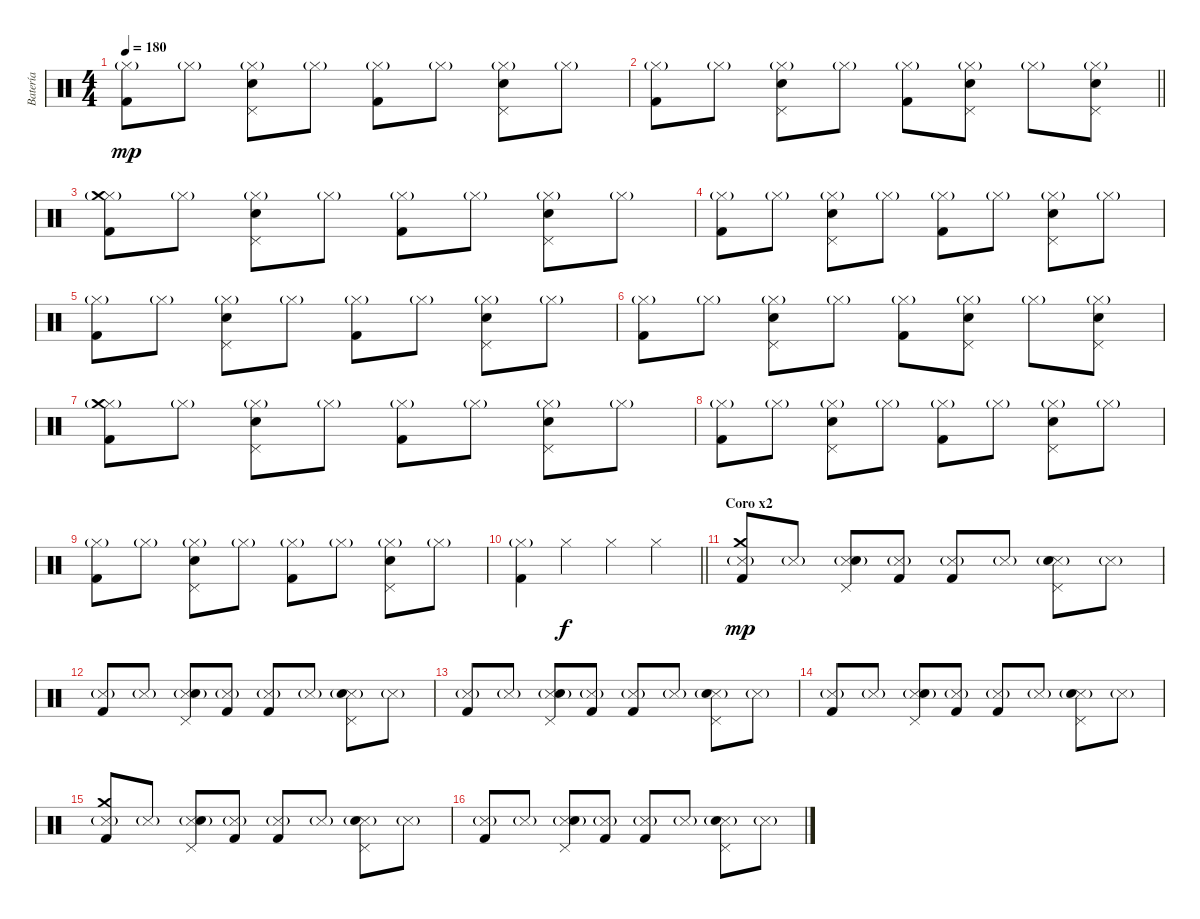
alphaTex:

\track ("Batería" "Batería") {instrument percussion}
\staff {score}
\articulation defaults
\ts (4 4)
\tempo 180
\clef neutral
\ks c
("Hi-Hat (closed)"{g} "Kick (hit) 2").8{dy mp} "Hi-Hat (closed)"{g}.8 ("Hi-Hat (closed)"{g} "Electric Snare (hit)" "Pedal Hi-Hat (hit)").8 "Hi-Hat (closed)"{g}.8 ("Hi-Hat (closed)"{g} "Kick (hit) 2").8 "Hi-Hat (closed)"{g}.8 ("Hi-Hat (closed)"{g} "Electric Snare (hit)" "Pedal Hi-Hat (hit)").8 "Hi-Hat (closed)"{g}.8 |
\barLineRight lightlight
("Hi-Hat (closed)"{g} "Kick (hit) 2").8 "Hi-Hat (closed)"{g}.8 ("Hi-Hat (closed)"{g} "Electric Snare (hit)" "Pedal Hi-Hat (hit)").8 "Hi-Hat (closed)"{g}.8 ("Hi-Hat (closed)"{g} "Kick (hit) 2").8 ("Hi-Hat (closed)"{g} "Electric Snare (hit)" "Pedal Hi-Hat (hit)").8 "Hi-Hat (closed)"{g}.8 ("Hi-Hat (closed)"{g} "Electric Snare (hit)" "Pedal Hi-Hat (hit)").8 |
\section ("" "")
("Hi-Hat (closed)"{g} "Kick (hit) 2" "Crash medium (hit)").8 "Hi-Hat (closed)"{g}.8 ("Hi-Hat (closed)"{g} "Electric Snare (hit)" "Pedal Hi-Hat (hit)").8 "Hi-Hat (closed)"{g}.8 ("Hi-Hat (closed)"{g} "Kick (hit) 2").8 "Hi-Hat (closed)"{g}.8 ("Hi-Hat (closed)"{g} "Electric Snare (hit)" "Pedal Hi-Hat (hit)").8 "Hi-Hat (closed)"{g}.8 |
("Hi-Hat (closed)"{g} "Kick (hit) 2").8 "Hi-Hat (closed)"{g}.8 ("Hi-Hat (closed)"{g} "Electric Snare (hit)" "Pedal Hi-Hat (hit)").8 "Hi-Hat (closed)"{g}.8 ("Hi-Hat (closed)"{g} "Kick (hit) 2").8 "Hi-Hat (closed)"{g}.8 ("Hi-Hat (closed)"{g} "Electric Snare (hit)" "Pedal Hi-Hat (hit)").8 "Hi-Hat (closed)"{g}.8 |
("Hi-Hat (closed)"{g} "Kick (hit) 2").8 "Hi-Hat (closed)"{g}.8 ("Hi-Hat (closed)"{g} "Electric Snare (hit)" "Pedal Hi-Hat (hit)").8 "Hi-Hat (closed)"{g}.8 ("Hi-Hat (closed)"{g} "Kick (hit) 2").8 "Hi-Hat (closed)"{g}.8 ("Hi-Hat (closed)"{g} "Electric Snare (hit)" "Pedal Hi-Hat (hit)").8 "Hi-Hat (closed)"{g}.8 |
("Hi-Hat (closed)"{g} "Kick (hit) 2").8 "Hi-Hat (closed)"{g}.8 ("Hi-Hat (closed)"{g} "Electric Snare (hit)" "Pedal Hi-Hat (hit)").8 "Hi-Hat (closed)"{g}.8 ("Hi-Hat (closed)"{g} "Kick (hit) 2").8 ("Hi-Hat (closed)"{g} "Electric Snare (hit)" "Pedal Hi-Hat (hit)").8 "Hi-Hat (closed)"{g}.8 ("Hi-Hat (closed)"{g} "Electric Snare (hit)" "Pedal Hi-Hat (hit)").8 |
("Hi-Hat (closed)"{g} "Kick (hit) 2" "Crash medium (hit)").8 "Hi-Hat (closed)"{g}.8 ("Hi-Hat (closed)"{g} "Electric Snare (hit)" "Pedal Hi-Hat (hit)").8 "Hi-Hat (closed)"{g}.8 ("Hi-Hat (closed)"{g} "Kick (hit) 2").8 "Hi-Hat (closed)"{g}.8 ("Hi-Hat (closed)"{g} "Electric Snare (hit)" "Pedal Hi-Hat (hit)").8 "Hi-Hat (closed)"{g}.8 |
("Hi-Hat (closed)"{g} "Kick (hit) 2").8 "Hi-Hat (closed)"{g}.8 ("Hi-Hat (closed)"{g} "Electric Snare (hit)" "Pedal Hi-Hat (hit)").8 "Hi-Hat (closed)"{g}.8 ("Hi-Hat (closed)"{g} "Kick (hit) 2").8 "Hi-Hat (closed)"{g}.8 ("Hi-Hat (closed)"{g} "Electric Snare (hit)" "Pedal Hi-Hat (hit)").8 "Hi-Hat (closed)"{g}.8 |
("Hi-Hat (closed)"{g} "Kick (hit) 2").8 "Hi-Hat (closed)"{g}.8 ("Hi-Hat (closed)"{g} "Electric Snare (hit)" "Pedal Hi-Hat (hit)").8 "Hi-Hat (closed)"{g}.8 ("Hi-Hat (closed)"{g} "Kick (hit) 2").8 "Hi-Hat (closed)"{g}.8 ("Hi-Hat (closed)"{g} "Electric Snare (hit)" "Pedal Hi-Hat (hit)").8 "Hi-Hat (closed)"{g}.8 |
\barLineRight lightlight
("Hi-Hat (closed)"{g} "Kick (hit) 2").4 "Hi-Hat (closed)".4{dy f} "Hi-Hat (closed)".4 "Hi-Hat (closed)".4 |
\section ("" "Coro x2")
("Snare (side stick) 3"{g} "Kick (hit) 2" "Crash medium (hit)").8{dy mp} "Snare (side stick) 3"{g}.8 ("Snare (side stick) 3"{g} "Electric Snare (hit)" "Pedal Hi-Hat (hit)").8 ("Snare (side stick) 3"{g} "Kick (hit) 2").8 ("Snare (side stick) 3"{g} "Kick (hit) 2").8 "Snare (side stick) 3"{g}.8 ("Snare (side stick) 3"{g} "Electric Snare (hit)" "Pedal Hi-Hat (hit)").8 "Snare (side stick) 3"{g}.8 |
("Snare (side stick) 3"{g} "Kick (hit) 2").8 "Snare (side stick) 3"{g}.8 ("Snare (side stick) 3"{g} "Electric Snare (hit)" "Pedal Hi-Hat (hit)").8 ("Snare (side stick) 3"{g} "Kick (hit) 2").8 ("Snare (side stick) 3"{g} "Kick (hit) 2").8 "Snare (side stick) 3"{g}.8 ("Snare (side stick) 3"{g} "Electric Snare (hit)" "Pedal Hi-Hat (hit)").8 "Snare (side stick) 3"{g}.8 |
("Snare (side stick) 3"{g} "Kick (hit) 2").8 "Snare (side stick) 3"{g}.8 ("Snare (side stick) 3"{g} "Electric Snare (hit)" "Pedal Hi-Hat (hit)").8 ("Snare (side stick) 3"{g} "Kick (hit) 2").8 ("Snare (side stick) 3"{g} "Kick (hit) 2").8 "Snare (side stick) 3"{g}.8 ("Snare (side stick) 3"{g} "Electric Snare (hit)" "Pedal Hi-Hat (hit)").8 "Snare (side stick) 3"{g}.8 |
("Snare (side stick) 3"{g} "Kick (hit) 2").8 "Snare (side stick) 3"{g}.8 ("Snare (side stick) 3"{g} "Electric Snare (hit)" "Pedal Hi-Hat (hit)").8 ("Snare (side stick) 3"{g} "Kick (hit) 2").8 ("Snare (side stick) 3"{g} "Kick (hit) 2").8 "Snare (side stick) 3"{g}.8 ("Snare (side stick) 3"{g} "Electric Snare (hit)" "Pedal Hi-Hat (hit)").8 "Snare (side stick) 3"{g}.8 |
("Snare (side stick) 3"{g} "Kick (hit) 2" "Crash medium (hit)").8 "Snare (side stick) 3"{g}.8 ("Snare (side stick) 3"{g} "Electric Snare (hit)" "Pedal Hi-Hat (hit)").8 ("Snare (side stick) 3"{g} "Kick (hit) 2").8 ("Snare (side stick) 3"{g} "Kick (hit) 2").8 "Snare (side stick) 3"{g}.8 ("Snare (side stick) 3"{g} "Electric Snare (hit)" "Pedal Hi-Hat (hit)").8 "Snare (side stick) 3"{g}.8 |
("Snare (side stick) 3"{g} "Kick (hit) 2").8 "Snare (side stick) 3"{g}.8 ("Snare (side stick) 3"{g} "Electric Snare (hit)" "Pedal Hi-Hat (hit)").8 ("Snare (side stick) 3"{g} "Kick (hit) 2").8 ("Snare (side stick) 3"{g} "Kick (hit) 2").8 "Snare (side stick) 3"{g}.8 ("Snare (side stick) 3"{g} "Electric Snare (hit)" "Pedal Hi-Hat (hit)").8 "Snare (side stick) 3"{g}.8
